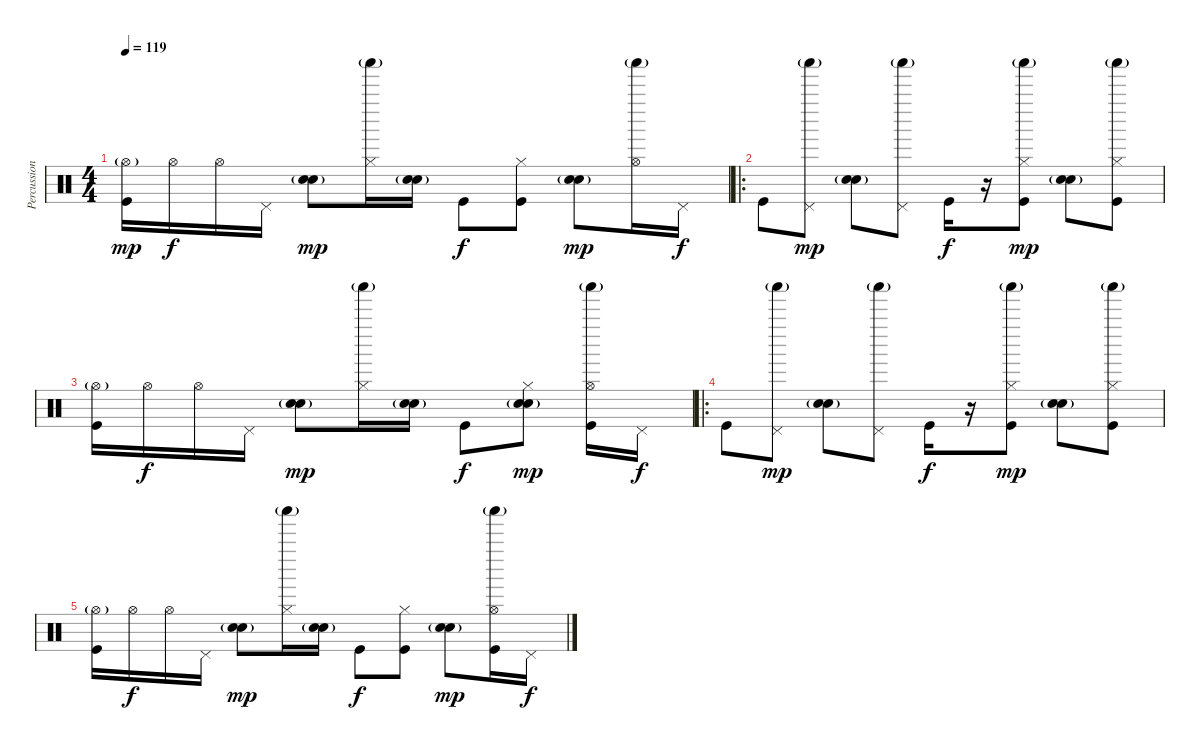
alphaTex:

\track ("Percussioni" "Percussion") {instrument percussion}
\staff {score}
\articulation defaults
\ts (4 4)
\tempo 119
\clef neutral
\ks c
("Hi-Hat (open)"{g} "Kick (hit)").16{dy mp} "Hi-Hat (open)".16{dy f} "Hi-Hat (open)".16 "Pedal Hi-Hat (hit)".16 ("Hand Clap (hit)"{g} "Electric Snare (hit)").8{dy mp} ("Hi-Hat (closed)" "Shaker (hit)"{g}).16 ("Electric Snare (hit)" "Hand Clap (hit)"{g}).16 "Kick (hit)".8{dy f} ("Hi-Hat (closed)" "Kick (hit)").8 ("Hand Clap (hit)"{g} "Electric Snare (hit)").8{dy mp} ("Hi-Hat (open)" "Shaker (hit)"{g}).16 "Pedal Hi-Hat (hit)".16{dy f} |
\ro "Kick (hit)".8
("Pedal Hi-Hat (hit)" "Shaker (hit)"{g}).8{dy mp} ("Hand Clap (hit)"{g} "Electric Snare (hit)").8 ("Pedal Hi-Hat (hit)" "Shaker (hit)"{g}).8 "Kick (hit)".16{dy f} r.16 ("Hi-Hat (closed)" "Shaker (hit)"{g} "Kick (hit)").8{dy mp} ("Hand Clap (hit)"{g} "Electric Snare (hit)").8 ("Hi-Hat (closed)" "Shaker (hit)"{g} "Kick (hit)").8 |
("Hi-Hat (open)"{g} "Kick (hit)").16 "Hi-Hat (open)".16{dy f} "Hi-Hat (open)".16 "Pedal Hi-Hat (hit)".16 ("Hand Clap (hit)"{g} "Electric Snare (hit)").8{dy mp} ("Hi-Hat (closed)" "Shaker (hit)"{g}).16 ("Electric Snare (hit)" "Hand Clap (hit)"{g}).16 "Kick (hit)".8{dy f} ("Hi-Hat (closed)" "Hand Clap (hit)"{g} "Electric Snare (hit)").8{dy mp} ("Hi-Hat (open)" "Shaker (hit)"{g} "Kick (hit)").16 "Pedal Hi-Hat (hit)".16{dy f} |
\ro "Kick (hit)".8
("Pedal Hi-Hat (hit)" "Shaker (hit)"{g}).8{dy mp} ("Hand Clap (hit)"{g} "Electric Snare (hit)").8 ("Pedal Hi-Hat (hit)" "Shaker (hit)"{g}).8 "Kick (hit)".16{dy f} r.16 ("Hi-Hat (closed)" "Shaker (hit)"{g} "Kick (hit)").8{dy mp} ("Hand Clap (hit)"{g} "Electric Snare (hit)").8 ("Hi-Hat (closed)" "Shaker (hit)"{g} "Kick (hit)").8 |
("Hi-Hat (open)"{g} "Kick (hit)").16 "Hi-Hat (open)".16{dy f} "Hi-Hat (open)".16 "Pedal Hi-Hat (hit)".16 ("Hand Clap (hit)"{g} "Electric Snare (hit)").8{dy mp} ("Hi-Hat (closed)" "Shaker (hit)"{g}).16 ("Electric Snare (hit)" "Hand Clap (hit)"{g}).16 "Kick (hit)".8{dy f} ("Hi-Hat (closed)" "Kick (hit)").8 ("Hand Clap (hit)"{g} "Electric Snare (hit)").8{dy mp} ("Hi-Hat (open)" "Shaker (hit)"{g} "Kick (hit)").16 "Pedal Hi-Hat (hit)".16{dy f}
